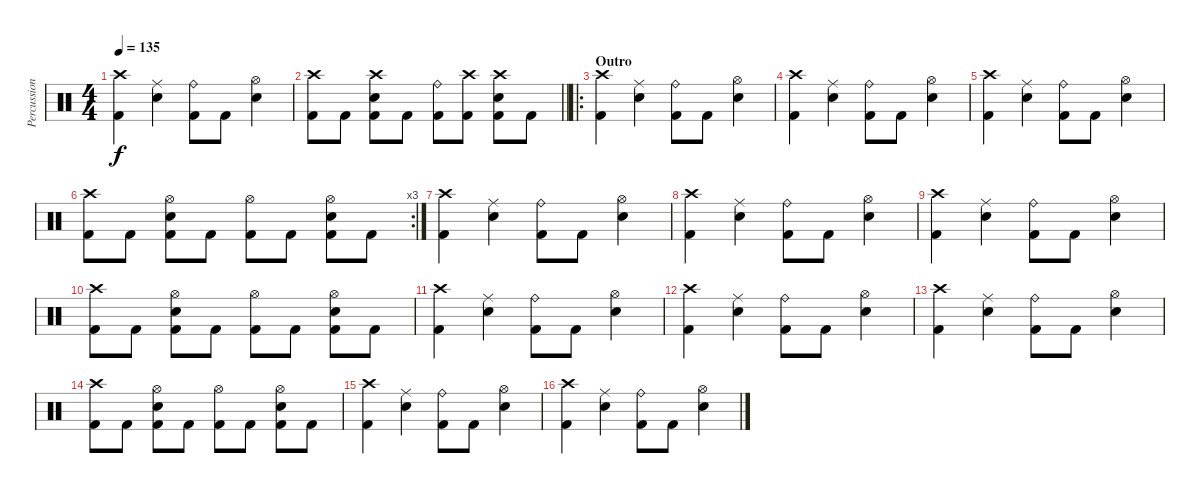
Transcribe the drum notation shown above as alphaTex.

\track ("Percussion" "Percussion") {instrument percussion}
\staff {score}
\articulation defaults
\ts (4 4)
\tempo 135
\clef neutral
\ks c
("Crash high (hit)" "Kick (hit) 2").4{dy f} ("Ride (middle)" "Electric Snare (hit)").4 ("Ride (bell)" "Kick (hit) 2").8 "Kick (hit) 2".8 ("Hi-Hat (open)" "Electric Snare (hit)").4 |
\barLineRight lightlight
("Crash high (hit)" "Kick (hit) 2").8 "Kick (hit) 2".8 ("Crash high (hit)" "Electric Snare (hit)" "Kick (hit) 2").8 "Kick (hit) 2".8 ("Ride (bell)" "Kick (hit) 2").8 ("Crash high (hit)" "Kick (hit) 2").8 ("Crash high (hit)" "Electric Snare (hit)" "Kick (hit) 2").8 "Kick (hit) 2".8 |
\ro
\section ("" "Outro")
("Crash high (hit)" "Kick (hit) 2").4 ("Ride (middle)" "Electric Snare (hit)").4 ("Ride (bell)" "Kick (hit) 2").8 "Kick (hit) 2".8 ("Hi-Hat (open)" "Electric Snare (hit)").4 |
("Crash high (hit)" "Kick (hit) 2").4 ("Ride (middle)" "Electric Snare (hit)").4 ("Ride (bell)" "Kick (hit) 2").8 "Kick (hit) 2".8 ("Hi-Hat (open)" "Electric Snare (hit)").4 |
("Crash high (hit)" "Kick (hit) 2").4 ("Ride (middle)" "Electric Snare (hit)").4 ("Ride (bell)" "Kick (hit) 2").8 "Kick (hit) 2".8 ("Hi-Hat (open)" "Electric Snare (hit)").4 |
\rc 3
("Crash high (hit)" "Kick (hit) 2").8 "Kick (hit) 2".8 ("Hi-Hat (open)" "Electric Snare (hit)" "Kick (hit) 2").8 "Kick (hit) 2".8 ("Hi-Hat (open)" "Kick (hit) 2").8 "Kick (hit) 2".8 ("Hi-Hat (open)" "Electric Snare (hit)" "Kick (hit) 2").8 "Kick (hit) 2".8 |
("Crash high (hit)" "Kick (hit) 2").4 ("Ride (middle)" "Electric Snare (hit)").4 ("Ride (bell)" "Kick (hit) 2").8 "Kick (hit) 2".8 ("Hi-Hat (open)" "Electric Snare (hit)").4 |
("Crash high (hit)" "Kick (hit) 2").4 ("Ride (middle)" "Electric Snare (hit)").4 ("Ride (bell)" "Kick (hit) 2").8 "Kick (hit) 2".8 ("Hi-Hat (open)" "Electric Snare (hit)").4 |
("Crash high (hit)" "Kick (hit) 2").4 ("Ride (middle)" "Electric Snare (hit)").4 ("Ride (bell)" "Kick (hit) 2").8 "Kick (hit) 2".8 ("Hi-Hat (open)" "Electric Snare (hit)").4 |
("Crash high (hit)" "Kick (hit) 2").8 "Kick (hit) 2".8 ("Hi-Hat (open)" "Electric Snare (hit)" "Kick (hit) 2").8 "Kick (hit) 2".8 ("Hi-Hat (open)" "Kick (hit) 2").8 "Kick (hit) 2".8 ("Hi-Hat (open)" "Electric Snare (hit)" "Kick (hit) 2").8 "Kick (hit) 2".8 |
("Crash high (hit)" "Kick (hit) 2").4 ("Ride (middle)" "Electric Snare (hit)").4 ("Ride (bell)" "Kick (hit) 2").8 "Kick (hit) 2".8 ("Hi-Hat (open)" "Electric Snare (hit)").4 |
("Crash high (hit)" "Kick (hit) 2").4 ("Ride (middle)" "Electric Snare (hit)").4 ("Ride (bell)" "Kick (hit) 2").8 "Kick (hit) 2".8 ("Hi-Hat (open)" "Electric Snare (hit)").4 |
("Crash high (hit)" "Kick (hit) 2").4 ("Ride (middle)" "Electric Snare (hit)").4 ("Ride (bell)" "Kick (hit) 2").8 "Kick (hit) 2".8 ("Hi-Hat (open)" "Electric Snare (hit)").4 |
("Crash high (hit)" "Kick (hit) 2").8 "Kick (hit) 2".8 ("Hi-Hat (open)" "Electric Snare (hit)" "Kick (hit) 2").8 "Kick (hit) 2".8 ("Hi-Hat (open)" "Kick (hit) 2").8 "Kick (hit) 2".8 ("Hi-Hat (open)" "Electric Snare (hit)" "Kick (hit) 2").8 "Kick (hit) 2".8 |
("Crash high (hit)" "Kick (hit) 2").4 ("Ride (middle)" "Electric Snare (hit)").4 ("Ride (bell)" "Kick (hit) 2").8 "Kick (hit) 2".8 ("Hi-Hat (open)" "Electric Snare (hit)").4 |
("Crash high (hit)" "Kick (hit) 2").4 ("Ride (middle)" "Electric Snare (hit)").4 ("Ride (bell)" "Kick (hit) 2").8 "Kick (hit) 2".8 ("Hi-Hat (open)" "Electric Snare (hit)").4
